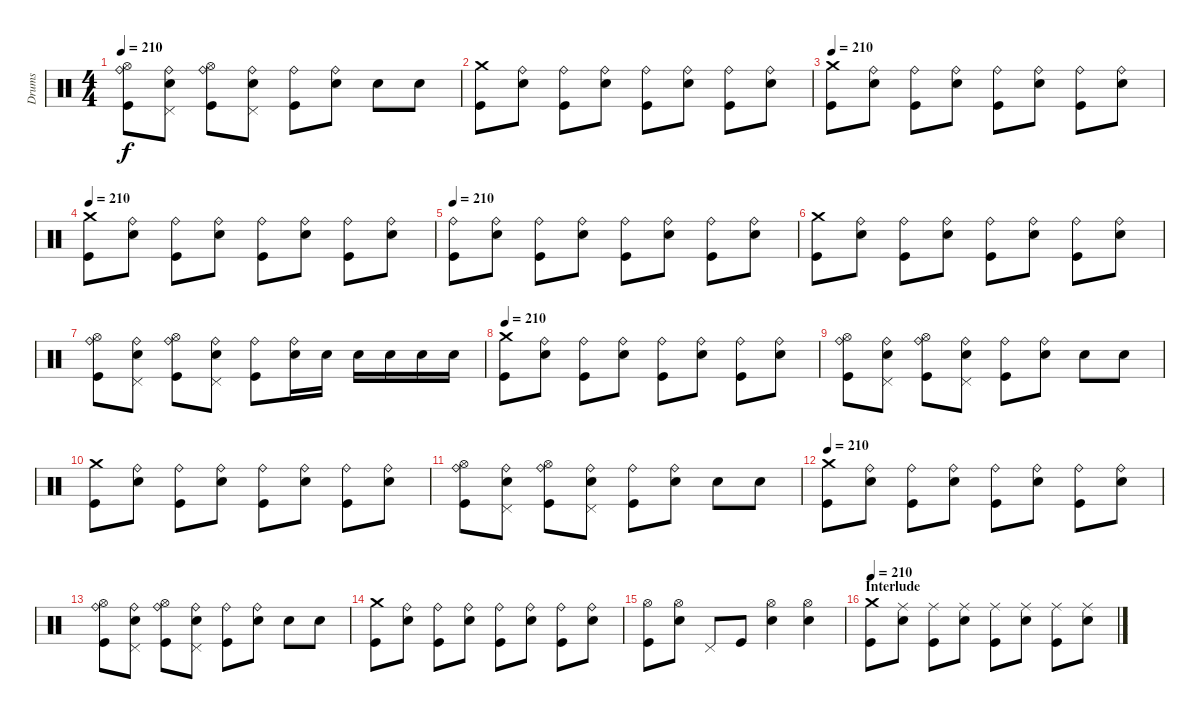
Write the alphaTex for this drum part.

\track ("Drums" "Drums") {instrument percussion}
\staff {score}
\articulation defaults
\ts (4 4)
\tempo 210
\clef neutral
\ks c
("Ride (bell)" "Hi-Hat (open)" "Kick (hit)").8{dy f} ("Ride (bell)" "Pedal Hi-Hat (hit)" "Electric Snare (hit)").8 ("Ride (bell)" "Hi-Hat (open)" "Kick (hit)").8 ("Ride (bell)" "Pedal Hi-Hat (hit)" "Electric Snare (hit)").8 ("Ride (bell)" "Kick (hit)").8 ("Ride (bell)" "Electric Snare (hit)").8 "Electric Snare (hit)".8 "Electric Snare (hit)".8 |
("Crash medium (hit)" "Kick (hit)").8 ("Ride (bell)" "Electric Snare (hit)").8 ("Ride (bell)" "Kick (hit)").8 ("Ride (bell)" "Electric Snare (hit)").8 ("Ride (bell)" "Kick (hit)").8 ("Ride (bell)" "Electric Snare (hit)").8 ("Ride (bell)" "Kick (hit)").8 ("Ride (bell)" "Electric Snare (hit)").8 |
\tempo 210
("Crash medium (hit)" "Kick (hit)").8 ("Ride (bell)" "Electric Snare (hit)").8 ("Ride (bell)" "Kick (hit)").8 ("Ride (bell)" "Electric Snare (hit)").8 ("Ride (bell)" "Kick (hit)").8 ("Ride (bell)" "Electric Snare (hit)").8 ("Ride (bell)" "Kick (hit)").8 ("Ride (bell)" "Electric Snare (hit)").8 |
\tempo 210
("Crash medium (hit)" "Kick (hit)").8 ("Ride (bell)" "Electric Snare (hit)").8 ("Ride (bell)" "Kick (hit)").8 ("Ride (bell)" "Electric Snare (hit)").8 ("Ride (bell)" "Kick (hit)").8 ("Ride (bell)" "Electric Snare (hit)").8 ("Ride (bell)" "Kick (hit)").8 ("Ride (bell)" "Electric Snare (hit)").8 |
\tempo 210
("Ride (bell)" "Kick (hit)").8 ("Ride (bell)" "Electric Snare (hit)").8 ("Ride (bell)" "Kick (hit)").8 ("Ride (bell)" "Electric Snare (hit)").8 ("Ride (bell)" "Kick (hit)").8 ("Ride (bell)" "Electric Snare (hit)").8 ("Ride (bell)" "Kick (hit)").8 ("Ride (bell)" "Electric Snare (hit)").8 |
("Crash medium (hit)" "Kick (hit)").8 ("Ride (bell)" "Electric Snare (hit)").8 ("Ride (bell)" "Kick (hit)").8 ("Ride (bell)" "Electric Snare (hit)").8 ("Ride (bell)" "Kick (hit)").8 ("Ride (bell)" "Electric Snare (hit)").8 ("Ride (bell)" "Kick (hit)").8 ("Ride (bell)" "Electric Snare (hit)").8 |
("Ride (bell)" "Hi-Hat (open)" "Kick (hit)").8 ("Ride (bell)" "Pedal Hi-Hat (hit)" "Electric Snare (hit)").8 ("Ride (bell)" "Hi-Hat (open)" "Kick (hit)").8 ("Ride (bell)" "Pedal Hi-Hat (hit)" "Electric Snare (hit)").8 ("Ride (bell)" "Kick (hit)").8 ("Ride (bell)" "Electric Snare (hit)").16 "Electric Snare (hit)".16 "Electric Snare (hit)".16 "Electric Snare (hit)".16 "Electric Snare (hit)".16 "Electric Snare (hit)".16 |
\tempo 210
("Crash medium (hit)" "Kick (hit)").8 ("Ride (bell)" "Electric Snare (hit)").8 ("Ride (bell)" "Kick (hit)").8 ("Ride (bell)" "Electric Snare (hit)").8 ("Ride (bell)" "Kick (hit)").8 ("Ride (bell)" "Electric Snare (hit)").8 ("Ride (bell)" "Kick (hit)").8 ("Ride (bell)" "Electric Snare (hit)").8 |
("Ride (bell)" "Hi-Hat (open)" "Kick (hit)").8 ("Ride (bell)" "Pedal Hi-Hat (hit)" "Electric Snare (hit)").8 ("Ride (bell)" "Hi-Hat (open)" "Kick (hit)").8 ("Ride (bell)" "Pedal Hi-Hat (hit)" "Electric Snare (hit)").8 ("Ride (bell)" "Kick (hit)").8 ("Ride (bell)" "Electric Snare (hit)").8 "Electric Snare (hit)".8 "Electric Snare (hit)".8 |
("Crash medium (hit)" "Kick (hit)").8 ("Ride (bell)" "Electric Snare (hit)").8 ("Ride (bell)" "Kick (hit)").8 ("Ride (bell)" "Electric Snare (hit)").8 ("Ride (bell)" "Kick (hit)").8 ("Ride (bell)" "Electric Snare (hit)").8 ("Ride (bell)" "Kick (hit)").8 ("Ride (bell)" "Electric Snare (hit)").8 |
("Ride (bell)" "Hi-Hat (open)" "Kick (hit)").8 ("Ride (bell)" "Pedal Hi-Hat (hit)" "Electric Snare (hit)").8 ("Ride (bell)" "Hi-Hat (open)" "Kick (hit)").8 ("Ride (bell)" "Pedal Hi-Hat (hit)" "Electric Snare (hit)").8 ("Ride (bell)" "Kick (hit)").8 ("Ride (bell)" "Electric Snare (hit)").8 "Electric Snare (hit)".8 "Electric Snare (hit)".8 |
\tempo 210
("Crash medium (hit)" "Kick (hit)").8 ("Ride (bell)" "Electric Snare (hit)").8 ("Ride (bell)" "Kick (hit)").8 ("Ride (bell)" "Electric Snare (hit)").8 ("Ride (bell)" "Kick (hit)").8 ("Ride (bell)" "Electric Snare (hit)").8 ("Ride (bell)" "Kick (hit)").8 ("Ride (bell)" "Electric Snare (hit)").8 |
("Ride (bell)" "Hi-Hat (open)" "Kick (hit)").8 ("Ride (bell)" "Pedal Hi-Hat (hit)" "Electric Snare (hit)").8 ("Ride (bell)" "Hi-Hat (open)" "Kick (hit)").8 ("Ride (bell)" "Pedal Hi-Hat (hit)" "Electric Snare (hit)").8 ("Ride (bell)" "Kick (hit)").8 ("Ride (bell)" "Electric Snare (hit)").8 "Electric Snare (hit)".8 "Electric Snare (hit)".8 |
("Crash medium (hit)" "Kick (hit)").8 ("Ride (bell)" "Electric Snare (hit)").8 ("Ride (bell)" "Kick (hit)").8 ("Ride (bell)" "Electric Snare (hit)").8 ("Ride (bell)" "Kick (hit)").8 ("Ride (bell)" "Electric Snare (hit)").8 ("Ride (bell)" "Kick (hit)").8 ("Ride (bell)" "Electric Snare (hit)").8 |
("Hi-Hat (open)" "Kick (hit)").8 ("Hi-Hat (open)" "Electric Snare (hit)").8 "Pedal Hi-Hat (hit)".8 "Kick (hit)".8 ("Hi-Hat (open)" "Electric Snare (hit)").4 ("Hi-Hat (open)" "Electric Snare (hit)").4 |
\section ("" "Interlude")
\tempo 210
("Crash medium (hit)" "Kick (hit)").8 ("Ride (middle)" "Electric Snare (hit)").8 ("Ride (middle)" "Kick (hit)").8 ("Ride (middle)" "Electric Snare (hit)").8 ("Ride (middle)" "Kick (hit)").8 ("Ride (middle)" "Electric Snare (hit)").8 ("Ride (middle)" "Kick (hit)").8 ("Ride (middle)" "Electric Snare (hit)").8
